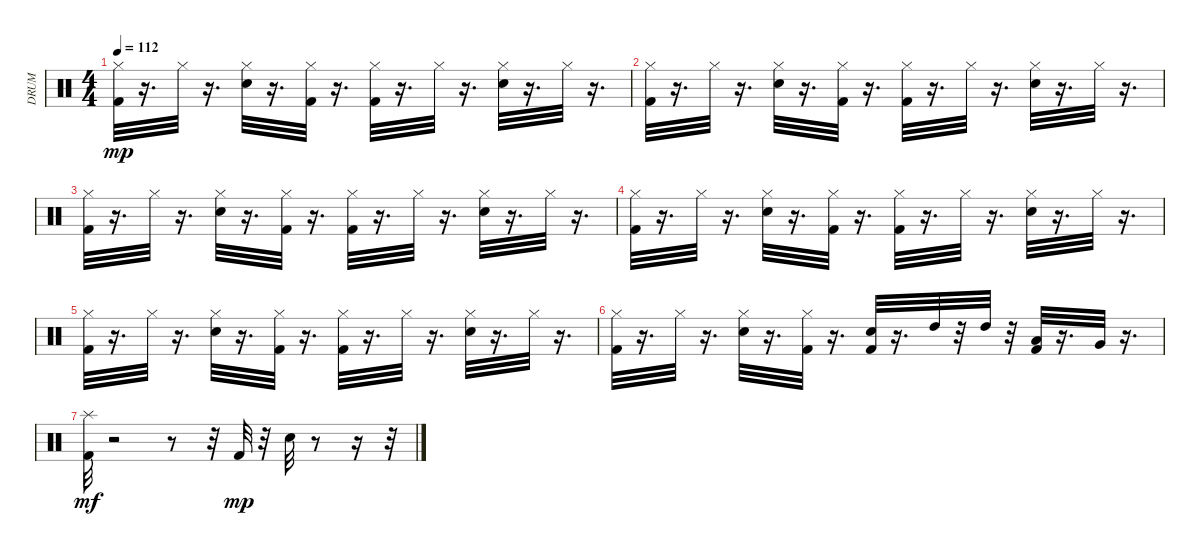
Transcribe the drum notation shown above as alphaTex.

\track ("DRUM" "DRUM") {instrument percussion}
\staff {score}
\articulation defaults
\ts (4 4)
\tempo 112
\clef neutral
\ks c
("Kick (hit) 2" "Hi-Hat (closed)").32{dy mp} r.16{d} "Hi-Hat (closed)".32 r.16{d} ("Hi-Hat (closed)" "Snare (hit) 2").32 r.16{d} ("Kick (hit) 2" "Hi-Hat (closed)").32 r.16{d} ("Kick (hit) 2" "Hi-Hat (closed)").32 r.16{d} "Hi-Hat (closed)".32 r.16{d} ("Hi-Hat (closed)" "Snare (hit) 2").32 r.16{d} "Hi-Hat (closed)".32 r.16{d} |
("Kick (hit) 2" "Hi-Hat (closed)").32 r.16{d} "Hi-Hat (closed)".32 r.16{d} ("Hi-Hat (closed)" "Snare (hit) 2").32 r.16{d} ("Kick (hit) 2" "Hi-Hat (closed)").32 r.16{d} ("Kick (hit) 2" "Hi-Hat (closed)").32 r.16{d} "Hi-Hat (closed)".32 r.16{d} ("Hi-Hat (closed)" "Snare (hit) 2").32 r.16{d} "Hi-Hat (closed)".32 r.16{d} |
("Kick (hit) 2" "Hi-Hat (closed)").32 r.16{d} "Hi-Hat (closed)".32 r.16{d} ("Hi-Hat (closed)" "Snare (hit) 2").32 r.16{d} ("Kick (hit) 2" "Hi-Hat (closed)").32 r.16{d} ("Kick (hit) 2" "Hi-Hat (closed)").32 r.16{d} "Hi-Hat (closed)".32 r.16{d} ("Hi-Hat (closed)" "Snare (hit) 2").32 r.16{d} "Hi-Hat (closed)".32 r.16{d} |
("Kick (hit) 2" "Hi-Hat (closed)").32 r.16{d} "Hi-Hat (closed)".32 r.16{d} ("Hi-Hat (closed)" "Snare (hit) 2").32 r.16{d} ("Kick (hit) 2" "Hi-Hat (closed)").32 r.16{d} ("Kick (hit) 2" "Hi-Hat (closed)").32 r.16{d} "Hi-Hat (closed)".32 r.16{d} ("Hi-Hat (closed)" "Snare (hit) 2").32 r.16{d} "Hi-Hat (closed)".32 r.16{d} |
("Kick (hit) 2" "Hi-Hat (closed)").32 r.16{d} "Hi-Hat (closed)".32 r.16{d} ("Hi-Hat (closed)" "Snare (hit) 2").32 r.16{d} ("Kick (hit) 2" "Hi-Hat (closed)").32 r.16{d} ("Kick (hit) 2" "Hi-Hat (closed)").32 r.16{d} "Hi-Hat (closed)".32 r.16{d} ("Hi-Hat (closed)" "Snare (hit) 2").32 r.16{d} "Hi-Hat (closed)".32 r.16{d} |
("Kick (hit) 2" "Hi-Hat (closed)").32 r.16{d} "Hi-Hat (closed)".32 r.16{d} ("Hi-Hat (closed)" "Snare (hit) 2").32 r.16{d} ("Kick (hit) 2" "Hi-Hat (closed)").32 r.16{d} ("Kick (hit) 2" "Snare (hit) 2").32 r.16{d} "High Tom (hit)".32 r.32 "High Tom (hit)".32 r.32 ("Kick (hit) 2" "Low Floor Tom (hit)").32 r.16{d} "Very Low Tom (hit)".32 r.16{d} |
("Kick (hit) 2" "Splash (hit)").32{dy mf} r.2 r.8 r.32 "Kick (hit) 2".32{dy mp} r.32 "Snare (hit) 2".32 r.8 r.16 r.32
